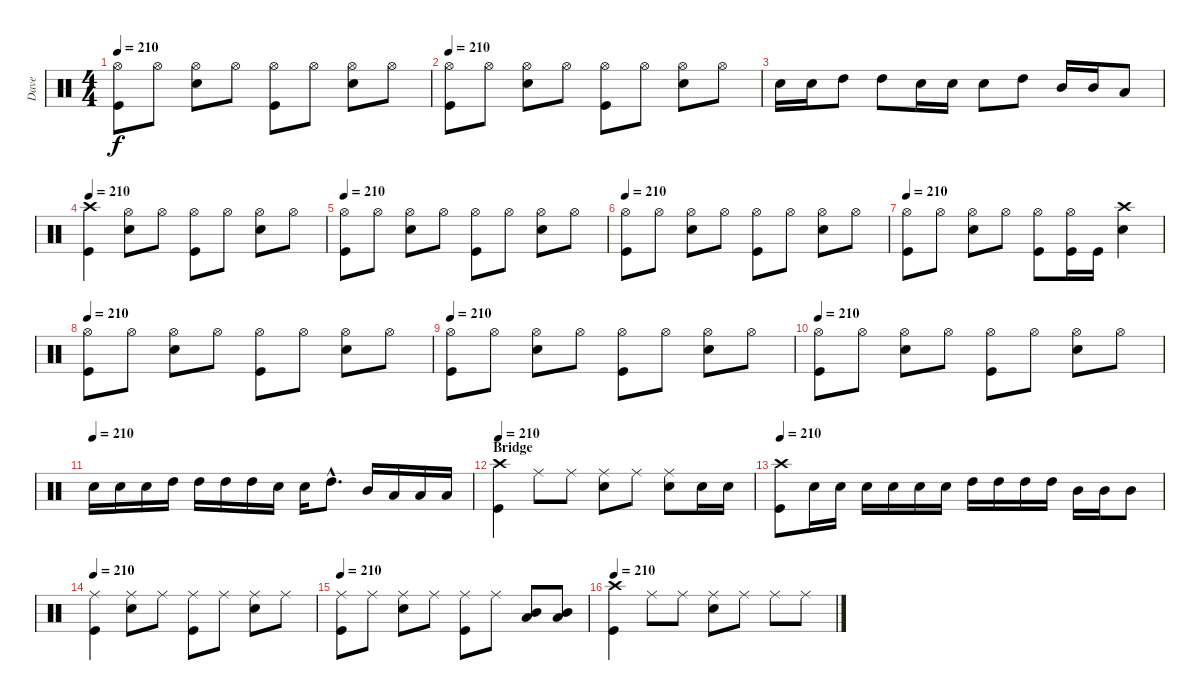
\track ("Dave" "Dave") {instrument percussion}
\staff {score}
\articulation defaults
\ts (4 4)
\tempo 210
\clef neutral
\ks c
("Hi-Hat (open)" "Kick (hit)").8{dy f} "Hi-Hat (open)".8 ("Hi-Hat (open)" "Snare (hit) 2").8 "Hi-Hat (open)".8 ("Hi-Hat (open)" "Kick (hit)").8 "Hi-Hat (open)".8 ("Hi-Hat (open)" "Snare (hit) 2").8 "Hi-Hat (open)".8 |
\tempo 210
("Hi-Hat (open)" "Kick (hit)").8 "Hi-Hat (open)".8 ("Hi-Hat (open)" "Snare (hit) 2").8 "Hi-Hat (open)".8 ("Hi-Hat (open)" "Kick (hit)").8 "Hi-Hat (open)".8 ("Hi-Hat (open)" "Snare (hit) 2").8 "Hi-Hat (open)".8 |
"Snare (hit) 2".16 "Snare (hit) 2".16 "High Tom (hit)".8 "High Tom (hit)".8 "Snare (hit) 2".16 "Snare (hit) 2".16 "Snare (hit) 2".8 "High Tom (hit)".8 "Mid Tom (hit)".16 "Mid Tom (hit)".16 "Low Tom (hit)".8 |
\tempo 210
("Crash high (hit)" "Kick (hit)").4 ("Hi-Hat (open)" "Snare (hit) 2").8 "Hi-Hat (open)".8 ("Hi-Hat (open)" "Kick (hit)").8 "Hi-Hat (open)".8 ("Hi-Hat (open)" "Snare (hit) 2").8 "Hi-Hat (open)".8 |
\tempo 210
("Hi-Hat (open)" "Kick (hit)").8 "Hi-Hat (open)".8 ("Hi-Hat (open)" "Snare (hit) 2").8 "Hi-Hat (open)".8 ("Hi-Hat (open)" "Kick (hit)").8 "Hi-Hat (open)".8 ("Hi-Hat (open)" "Snare (hit) 2").8 "Hi-Hat (open)".8 |
\tempo 210
("Hi-Hat (open)" "Kick (hit)").8 "Hi-Hat (open)".8 ("Hi-Hat (open)" "Snare (hit) 2").8 "Hi-Hat (open)".8 ("Hi-Hat (open)" "Kick (hit)").8 "Hi-Hat (open)".8 ("Hi-Hat (open)" "Snare (hit) 2").8 "Hi-Hat (open)".8 |
\tempo 210
("Hi-Hat (open)" "Kick (hit)").8 "Hi-Hat (open)".8 ("Hi-Hat (open)" "Snare (hit) 2").8 "Hi-Hat (open)".8 ("Hi-Hat (open)" "Kick (hit)").8 ("Hi-Hat (open)" "Kick (hit)").16 "Kick (hit)".16 ("Crash high (hit)" "Snare (hit) 2").4 |
\tempo 210
("Hi-Hat (open)" "Kick (hit)").8 "Hi-Hat (open)".8 ("Hi-Hat (open)" "Snare (hit) 2").8 "Hi-Hat (open)".8 ("Hi-Hat (open)" "Kick (hit)").8 "Hi-Hat (open)".8 ("Hi-Hat (open)" "Snare (hit) 2").8 "Hi-Hat (open)".8 |
\tempo 210
("Hi-Hat (open)" "Kick (hit)").8 "Hi-Hat (open)".8 ("Hi-Hat (open)" "Snare (hit) 2").8 "Hi-Hat (open)".8 ("Hi-Hat (open)" "Kick (hit)").8 "Hi-Hat (open)".8 ("Hi-Hat (open)" "Snare (hit) 2").8 "Hi-Hat (open)".8 |
\tempo 210
("Hi-Hat (open)" "Kick (hit)").8 "Hi-Hat (open)".8 ("Hi-Hat (open)" "Snare (hit) 2").8 "Hi-Hat (open)".8 ("Hi-Hat (open)" "Kick (hit)").8 "Hi-Hat (open)".8 ("Hi-Hat (open)" "Snare (hit) 2").8 "Hi-Hat (open)".8 |
\tempo (210)
"Snare (hit) 2".16 "Snare (hit) 2".16 "Snare (hit) 2".16 "High Tom (hit)".16 "High Tom (hit)".16 "High Tom (hit)".16 "High Tom (hit)".16 "Snare (hit) 2".16 "Snare (hit) 2".16 "High Tom (hit)"{hac}.8{d} "Mid Tom (hit)".16 "Low Tom (hit)".16 "Low Tom (hit)".16 "Low Tom (hit)".16 |
\section ("" "Bridge")
\tempo 210
("Crash high (hit)" "Kick (hit)").4 "Ride (middle)".8 "Ride (middle)".8 ("Ride (middle)" "Snare (hit) 2").8 "Ride (middle)".8 ("Ride (middle)" "Snare (hit) 2").8 "Snare (hit) 2".16 "Snare (hit) 2".16 |
\tempo 210
("Crash high (hit)" "Kick (hit)").8 "Snare (hit) 2".16 "Snare (hit) 2".16 "Snare (hit) 2".16 "Snare (hit) 2".16 "Snare (hit) 2".16 "Snare (hit) 2".16 "High Tom (hit)".16 "High Tom (hit)".16 "High Tom (hit)".16 "High Tom (hit)".16 "Mid Tom (hit)".16 "Mid Tom (hit)".16 "Mid Tom (hit)".8 |
\tempo 210
("Ride (middle)" "Kick (hit)").4 ("Ride (middle)" "Snare (hit) 2").8 "Ride (middle)".8 ("Ride (middle)" "Kick (hit)").8 "Ride (middle)".8 ("Ride (middle)" "Snare (hit) 2").8 "Ride (middle)".8 |
\tempo 210
("Ride (middle)" "Kick (hit)").8 "Ride (middle)".8 ("Ride (middle)" "Snare (hit) 2").8 "Ride (middle)".8 ("Ride (middle)" "Kick (hit)").8 "Ride (middle)".8 ("Low Tom (hit)" "Mid Tom (hit)").8 ("Low Tom (hit)" "Mid Tom (hit)").8 |
\tempo 210
("Crash high (hit)" "Kick (hit)").4 "Ride (middle)".8 "Ride (middle)".8 ("Ride (middle)" "Snare (hit) 2").8 "Ride (middle)".8 "Ride (middle)".8 "Ride (middle)".8
